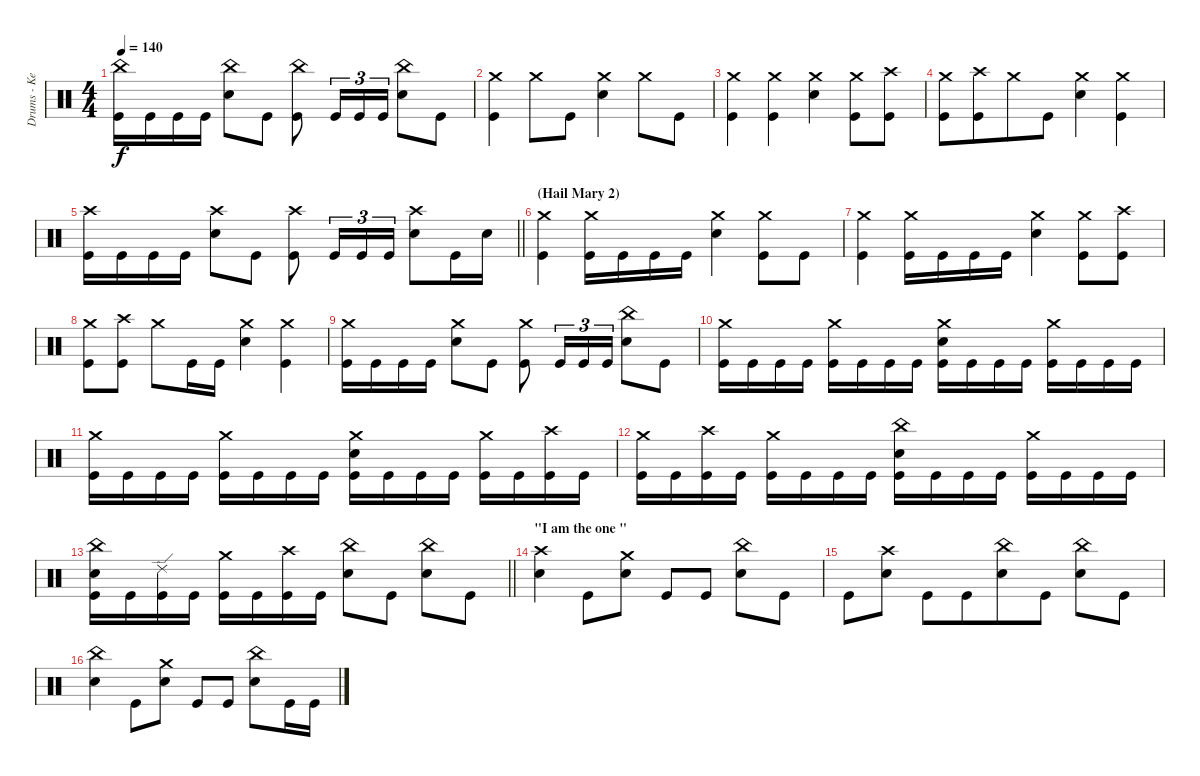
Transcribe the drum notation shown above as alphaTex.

\track ("Drums - Kevin Boutot" "Drums - Ke") {instrument percussion}
\staff {score}
\articulation defaults
\ts (4 4)
\tempo 140
\clef neutral
\ks c
("China (hit)" "Kick (hit)").16{dy f} "Kick (hit)".16{beam merge} "Kick (hit)".16{beam merge} "Kick (hit)".16 ("China (hit)" "Electric Snare (hit)").8 "Kick (hit)".8 ("China (hit)" "Kick (hit)").8 "Kick (hit)".16{tu (3 2)} "Kick (hit)".16{tu (3 2)} "Kick (hit)".16{tu (3 2)} ("China (hit)" "Electric Snare (hit)").8 "Kick (hit)".8 |
("Crash medium (hit)" "Kick (hit)").4{beam merge} "Crash medium (hit)".8 "Kick (hit)".8{beam merge} ("Crash medium (hit)" "Electric Snare (hit)").4 "Crash medium (hit)".8 "Kick (hit)".8 |
("Crash medium (hit)" "Kick (hit)").4 ("Crash medium (hit)" "Kick (hit)").4 ("Crash medium (hit)" "Electric Snare (hit)").4 ("Crash medium (hit)" "Kick (hit)").8 ("Crash high (hit)" "Kick (hit)").8 |
("Crash medium (hit)" "Kick (hit)").8 ("Crash high (hit)" "Kick (hit)").8{beam merge} "Crash medium (hit)".8 "Kick (hit)".8{beam merge} ("Crash medium (hit)" "Electric Snare (hit)").4 ("Crash medium (hit)" "Kick (hit)").4 |
\barLineRight lightlight
("Crash high (hit)" "Kick (hit)").16 "Kick (hit)".16{beam merge} "Kick (hit)".16{beam merge} "Kick (hit)".16 ("Crash high (hit)" "Electric Snare (hit)").8 "Kick (hit)".8 ("Crash high (hit)" "Kick (hit)").8 "Kick (hit)".16{tu (3 2)} "Kick (hit)".16{tu (3 2)} "Kick (hit)".16{tu (3 2)} ("Crash high (hit)" "Electric Snare (hit)").8 "Kick (hit)".16 "Electric Snare (hit)".16 |
\section ("" "(Hail Mary 2)")
("Crash medium (hit)" "Kick (hit)").4 ("Crash medium (hit)" "Kick (hit)").16 "Kick (hit)".16{beam merge} "Kick (hit)".16 "Kick (hit)".16{beam merge} ("Crash medium (hit)" "Electric Snare (hit)").4 ("Crash medium (hit)" "Kick (hit)").8 "Kick (hit)".8 |
("Crash medium (hit)" "Kick (hit)").4 ("Crash medium (hit)" "Kick (hit)").16 "Kick (hit)".16{beam merge} "Kick (hit)".16 "Kick (hit)".16{beam merge} ("Crash medium (hit)" "Electric Snare (hit)").4 ("Crash medium (hit)" "Kick (hit)").8 ("Crash high (hit)" "Kick (hit)").8 |
("Crash medium (hit)" "Kick (hit)").8 ("Crash high (hit)" "Kick (hit)").8 "Crash medium (hit)".8 "Kick (hit)".16{beam merge} "Kick (hit)".16 ("Crash medium (hit)" "Electric Snare (hit)").4 ("Crash medium (hit)" "Kick (hit)").4 |
("Crash medium (hit)" "Kick (hit)").16 "Kick (hit)".16{beam merge} "Kick (hit)".16{beam merge} "Kick (hit)".16 ("Crash medium (hit)" "Electric Snare (hit)").8 "Kick (hit)".8 ("Crash medium (hit)" "Kick (hit)").8 "Kick (hit)".16{tu (3 2)} "Kick (hit)".16{tu (3 2)} "Kick (hit)".16{tu (3 2)} ("China (hit)" "Electric Snare (hit)").8 "Kick (hit)".8 |
("Crash medium (hit)" "Kick (hit)").16 "Kick (hit)".16 "Kick (hit)".16{beam merge} "Kick (hit)".16 ("Crash medium (hit)" "Kick (hit)").16 "Kick (hit)".16 "Kick (hit)".16 "Kick (hit)".16 ("Crash medium (hit)" "Electric Snare (hit)" "Kick (hit)").16 "Kick (hit)".16 "Kick (hit)".16 "Kick (hit)".16 ("Crash medium (hit)" "Kick (hit)").16{beam merge} "Kick (hit)".16 "Kick (hit)".16 "Kick (hit)".16 |
("Crash medium (hit)" "Kick (hit)").16 "Kick (hit)".16 "Kick (hit)".16{beam merge} "Kick (hit)".16 ("Crash medium (hit)" "Kick (hit)").16 "Kick (hit)".16 "Kick (hit)".16 "Kick (hit)".16 ("Crash medium (hit)" "Electric Snare (hit)" "Kick (hit)").16 "Kick (hit)".16 "Kick (hit)".16 "Kick (hit)".16 ("Crash medium (hit)" "Kick (hit)").16{beam merge} "Kick (hit)".16 ("Crash high (hit)" "Kick (hit)").16 "Kick (hit)".16 |
("Crash medium (hit)" "Kick (hit)").16 "Kick (hit)".16 ("Crash high (hit)" "Kick (hit)").16{beam merge} "Kick (hit)".16 ("Crash medium (hit)" "Kick (hit)").16 "Kick (hit)".16 "Kick (hit)".16 "Kick (hit)".16 ("China (hit)" "Electric Snare (hit)" "Kick (hit)").16 "Kick (hit)".16 "Kick (hit)".16 "Kick (hit)".16 ("Crash medium (hit)" "Kick (hit)").16{beam merge} "Kick (hit)".16 "Kick (hit)".16 "Kick (hit)".16 |
\barLineRight lightlight
("China (hit)" "Electric Snare (hit)" "Kick (hit)").16 "Kick (hit)".16 ("Ride (edge) 2" "Kick (hit)").16{beam merge} "Kick (hit)".16 ("Crash medium (hit)" "Kick (hit)").16 "Kick (hit)".16 ("Crash high (hit)" "Kick (hit)").16 "Kick (hit)".16 ("China (hit)" "Electric Snare (hit)").8 "Kick (hit)".8 ("China (hit)" "Electric Snare (hit)").8 "Kick (hit)".8 |
\section ("" "\"I am the one \"")
("Crash high (hit)" "Electric Snare (hit)").4 "Kick (hit)".8{beam merge} ("Crash medium (hit)" "Electric Snare (hit)").8 "Kick (hit)".8 "Kick (hit)".8 ("China (hit)" "Electric Snare (hit)").8 "Kick (hit)".8 |
"Kick (hit)".8{beam merge} ("Crash high (hit)" "Electric Snare (hit)").8 "Kick (hit)".8{beam merge} "Kick (hit)".8{beam merge} ("China (hit)" "Electric Snare (hit)").8 "Kick (hit)".8 ("China (hit)" "Electric Snare (hit)").8 "Kick (hit)".8 |
("China (hit)" "Electric Snare (hit)").4 "Kick (hit)".8{beam merge} ("Crash medium (hit)" "Electric Snare (hit)").8 "Kick (hit)".8 "Kick (hit)".8 ("China (hit)" "Electric Snare (hit)").8 "Kick (hit)".16 "Kick (hit)".16
